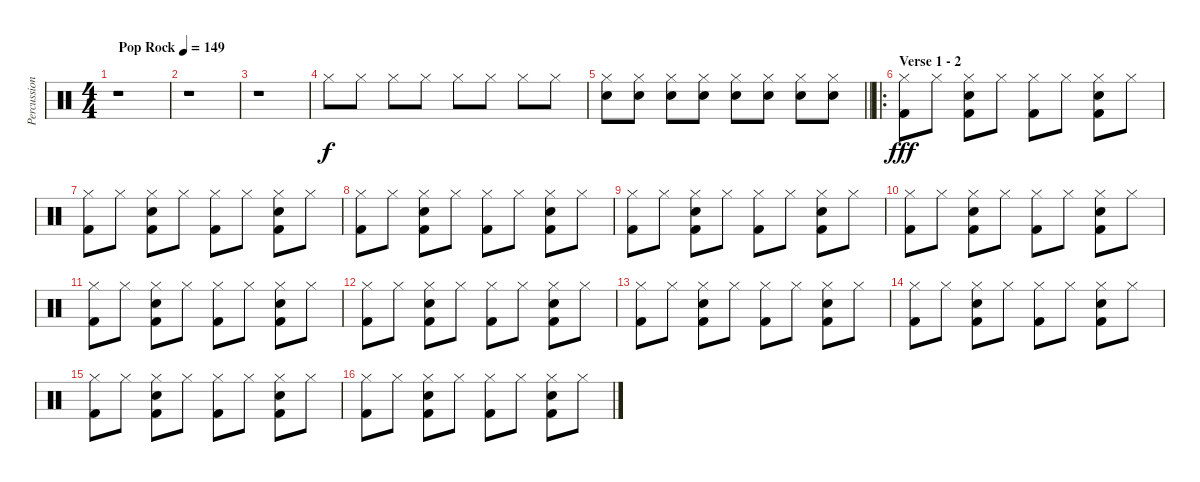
\track ("Percussion" "Percussion") {instrument percussion}
\staff {score}
\articulation defaults
\ts (4 4)
\tempo (149 "Pop Rock")
\clef neutral
\ks c
r.1{dy f} |
r.1 |
r.1 |
"Hi-Hat (closed)".8 "Hi-Hat (closed)".8 "Hi-Hat (closed)".8 "Hi-Hat (closed)".8 "Hi-Hat (closed)".8 "Hi-Hat (closed)".8 "Hi-Hat (closed)".8 "Hi-Hat (closed)".8 |
\barLineRight lightlight
("Hi-Hat (closed)" "Snare (hit) 2").8 ("Hi-Hat (closed)" "Snare (hit) 2").8 ("Hi-Hat (closed)" "Snare (hit) 2").8 ("Hi-Hat (closed)" "Snare (hit) 2").8 ("Hi-Hat (closed)" "Snare (hit) 2").8 ("Hi-Hat (closed)" "Snare (hit) 2").8 ("Hi-Hat (closed)" "Snare (hit) 2").8 ("Hi-Hat (closed)" "Snare (hit) 2").8 |
\ro
\section ("" "Verse 1 - 2")
("Hi-Hat (closed)" "Kick (hit) 2").8{dy fff} "Hi-Hat (closed)".8 ("Hi-Hat (closed)" "Snare (hit) 2" "Kick (hit) 2").8 "Hi-Hat (closed)".8 ("Hi-Hat (closed)" "Kick (hit) 2").8 "Hi-Hat (closed)".8 ("Hi-Hat (closed)" "Snare (hit) 2" "Kick (hit) 2").8 "Hi-Hat (closed)".8 |
("Hi-Hat (closed)" "Kick (hit) 2").8 "Hi-Hat (closed)".8 ("Hi-Hat (closed)" "Snare (hit) 2" "Kick (hit) 2").8 "Hi-Hat (closed)".8 ("Hi-Hat (closed)" "Kick (hit) 2").8 "Hi-Hat (closed)".8 ("Hi-Hat (closed)" "Snare (hit) 2" "Kick (hit) 2").8 "Hi-Hat (closed)".8 |
("Hi-Hat (closed)" "Kick (hit) 2").8 "Hi-Hat (closed)".8 ("Hi-Hat (closed)" "Snare (hit) 2" "Kick (hit) 2").8 "Hi-Hat (closed)".8 ("Hi-Hat (closed)" "Kick (hit) 2").8 "Hi-Hat (closed)".8 ("Hi-Hat (closed)" "Snare (hit) 2" "Kick (hit) 2").8 "Hi-Hat (closed)".8 |
("Hi-Hat (closed)" "Kick (hit) 2").8 "Hi-Hat (closed)".8 ("Hi-Hat (closed)" "Snare (hit) 2" "Kick (hit) 2").8 "Hi-Hat (closed)".8 ("Hi-Hat (closed)" "Kick (hit) 2").8 "Hi-Hat (closed)".8 ("Hi-Hat (closed)" "Snare (hit) 2" "Kick (hit) 2").8 "Hi-Hat (closed)".8 |
("Hi-Hat (closed)" "Kick (hit) 2").8 "Hi-Hat (closed)".8 ("Hi-Hat (closed)" "Snare (hit) 2" "Kick (hit) 2").8 "Hi-Hat (closed)".8 ("Hi-Hat (closed)" "Kick (hit) 2").8 "Hi-Hat (closed)".8 ("Hi-Hat (closed)" "Snare (hit) 2" "Kick (hit) 2").8 "Hi-Hat (closed)".8 |
("Hi-Hat (closed)" "Kick (hit) 2").8 "Hi-Hat (closed)".8 ("Hi-Hat (closed)" "Snare (hit) 2" "Kick (hit) 2").8 "Hi-Hat (closed)".8 ("Hi-Hat (closed)" "Kick (hit) 2").8 "Hi-Hat (closed)".8 ("Hi-Hat (closed)" "Snare (hit) 2" "Kick (hit) 2").8 "Hi-Hat (closed)".8 |
("Hi-Hat (closed)" "Kick (hit) 2").8 "Hi-Hat (closed)".8 ("Hi-Hat (closed)" "Snare (hit) 2" "Kick (hit) 2").8 "Hi-Hat (closed)".8 ("Hi-Hat (closed)" "Kick (hit) 2").8 "Hi-Hat (closed)".8 ("Hi-Hat (closed)" "Snare (hit) 2" "Kick (hit) 2").8 "Hi-Hat (closed)".8 |
("Hi-Hat (closed)" "Kick (hit) 2").8 "Hi-Hat (closed)".8 ("Hi-Hat (closed)" "Snare (hit) 2" "Kick (hit) 2").8 "Hi-Hat (closed)".8 ("Hi-Hat (closed)" "Kick (hit) 2").8 "Hi-Hat (closed)".8 ("Hi-Hat (closed)" "Snare (hit) 2" "Kick (hit) 2").8 "Hi-Hat (closed)".8 |
("Hi-Hat (closed)" "Kick (hit) 2").8 "Hi-Hat (closed)".8 ("Hi-Hat (closed)" "Snare (hit) 2" "Kick (hit) 2").8 "Hi-Hat (closed)".8 ("Hi-Hat (closed)" "Kick (hit) 2").8 "Hi-Hat (closed)".8 ("Hi-Hat (closed)" "Snare (hit) 2" "Kick (hit) 2").8 "Hi-Hat (closed)".8 |
("Hi-Hat (closed)" "Kick (hit) 2").8 "Hi-Hat (closed)".8 ("Hi-Hat (closed)" "Snare (hit) 2" "Kick (hit) 2").8 "Hi-Hat (closed)".8 ("Hi-Hat (closed)" "Kick (hit) 2").8 "Hi-Hat (closed)".8 ("Hi-Hat (closed)" "Snare (hit) 2" "Kick (hit) 2").8 "Hi-Hat (closed)".8 |
("Hi-Hat (closed)" "Kick (hit) 2").8 "Hi-Hat (closed)".8 ("Hi-Hat (closed)" "Snare (hit) 2" "Kick (hit) 2").8 "Hi-Hat (closed)".8 ("Hi-Hat (closed)" "Kick (hit) 2").8 "Hi-Hat (closed)".8 ("Hi-Hat (closed)" "Snare (hit) 2" "Kick (hit) 2").8 "Hi-Hat (closed)".8
